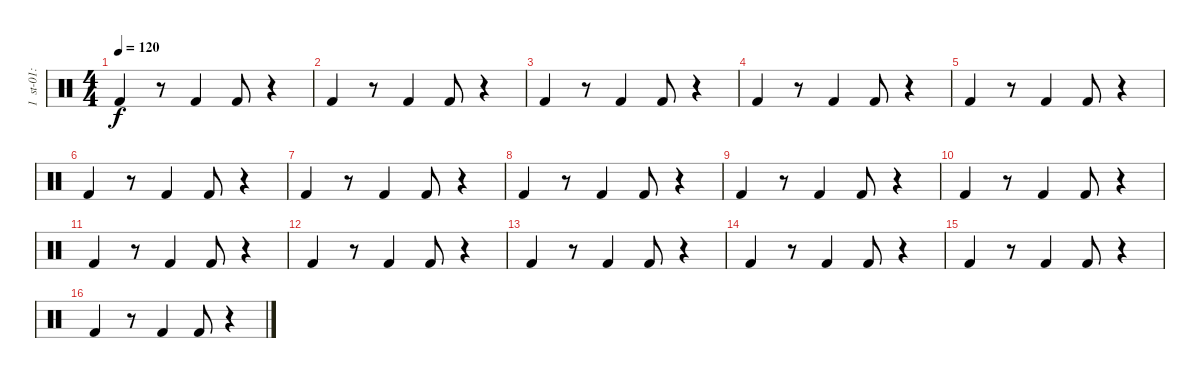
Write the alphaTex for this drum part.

\track (" 1  st-01:bassdrum2" " 1  st-01:") {instrument percussion}
\staff {score}
\articulation defaults
\ts (4 4)
\tempo 120
\clef neutral
\ks c "Kick (hit) 2".4{dy f}
r.8 "Kick (hit) 2".4 "Kick (hit) 2".8 r.4 |
"Kick (hit) 2".4 r.8 "Kick (hit) 2".4 "Kick (hit) 2".8 r.4 |
"Kick (hit) 2".4 r.8 "Kick (hit) 2".4 "Kick (hit) 2".8 r.4 |
"Kick (hit) 2".4 r.8 "Kick (hit) 2".4 "Kick (hit) 2".8 r.4 |
"Kick (hit) 2".4 r.8 "Kick (hit) 2".4 "Kick (hit) 2".8 r.4 |
"Kick (hit) 2".4 r.8 "Kick (hit) 2".4 "Kick (hit) 2".8 r.4 |
"Kick (hit) 2".4 r.8 "Kick (hit) 2".4 "Kick (hit) 2".8 r.4 |
"Kick (hit) 2".4 r.8 "Kick (hit) 2".4 "Kick (hit) 2".8 r.4 |
"Kick (hit) 2".4 r.8 "Kick (hit) 2".4 "Kick (hit) 2".8 r.4 |
"Kick (hit) 2".4 r.8 "Kick (hit) 2".4 "Kick (hit) 2".8 r.4 |
"Kick (hit) 2".4 r.8 "Kick (hit) 2".4 "Kick (hit) 2".8 r.4 |
"Kick (hit) 2".4 r.8 "Kick (hit) 2".4 "Kick (hit) 2".8 r.4 |
"Kick (hit) 2".4 r.8 "Kick (hit) 2".4 "Kick (hit) 2".8 r.4 |
"Kick (hit) 2".4 r.8 "Kick (hit) 2".4 "Kick (hit) 2".8 r.4 |
"Kick (hit) 2".4 r.8 "Kick (hit) 2".4 "Kick (hit) 2".8 r.4 |
"Kick (hit) 2".4 r.8 "Kick (hit) 2".4 "Kick (hit) 2".8 r.4
